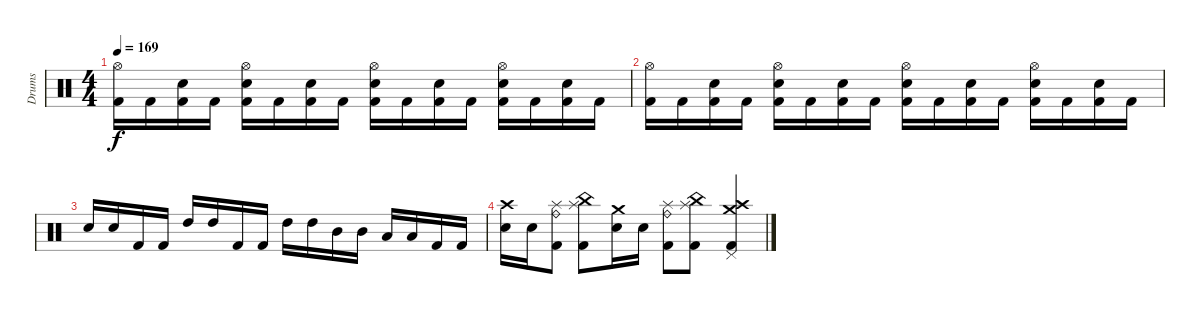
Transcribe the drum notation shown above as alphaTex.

\track ("Drums" "Drums") {instrument percussion}
\staff {score}
\articulation defaults
\ts (4 4)
\tempo 169
\clef neutral
\ks c
("Hi-Hat (open)" "Kick (hit) 2").16{dy f} "Kick (hit) 2".16 ("Snare (hit) 2" "Kick (hit) 2").16 "Kick (hit) 2".16 ("Hi-Hat (open)" "Snare (hit) 2" "Kick (hit) 2").16 "Kick (hit) 2".16 ("Snare (hit) 2" "Kick (hit) 2").16 "Kick (hit) 2".16 ("Hi-Hat (open)" "Snare (hit) 2" "Kick (hit) 2").16 "Kick (hit) 2".16 ("Snare (hit) 2" "Kick (hit) 2").16 "Kick (hit) 2".16 ("Hi-Hat (open)" "Snare (hit) 2" "Kick (hit) 2").16 "Kick (hit) 2".16 ("Snare (hit) 2" "Kick (hit) 2").16 "Kick (hit) 2".16 |
("Hi-Hat (open)" "Kick (hit) 2").16 "Kick (hit) 2".16 ("Snare (hit) 2" "Kick (hit) 2").16 "Kick (hit) 2".16 ("Hi-Hat (open)" "Snare (hit) 2" "Kick (hit) 2").16 "Kick (hit) 2".16 ("Snare (hit) 2" "Kick (hit) 2").16 "Kick (hit) 2".16 ("Hi-Hat (open)" "Snare (hit) 2" "Kick (hit) 2").16 "Kick (hit) 2".16 ("Snare (hit) 2" "Kick (hit) 2").16 "Kick (hit) 2".16 ("Hi-Hat (open)" "Snare (hit) 2" "Kick (hit) 2").16 "Kick (hit) 2".16 ("Snare (hit) 2" "Kick (hit) 2").16 "Kick (hit) 2".16 |
"Snare (hit) 2".16 "Snare (hit) 2".16 "Kick (hit) 2".16 "Kick (hit) 2".16 "High Tom (hit)".16 "High Tom (hit)".16 "Kick (hit) 2".16 "Kick (hit) 2".16 "High Tom (hit)".16 "High Tom (hit)".16 "Mid Tom (hit)".16 "Mid Tom (hit)".16 "Low Tom (hit)".16 "Low Tom (hit)".16 "Kick (hit) 2".16 "Kick (hit) 2".16 |
("Crash high (hit)" "Snare (hit) 2").16 "Snare (hit) 2".16 ("Splash (hit)" "Ride (bell)" "Kick (hit) 2").8 ("China (hit)" "Splash (hit)" "Kick (hit) 2").8 ("Crash medium (hit)" "Snare (hit) 2").16 "Snare (hit) 2".16 ("Splash (hit)" "Ride (bell)" "Kick (hit) 2").8 ("China (hit)" "Splash (hit)" "Kick (hit) 2").8 ("Crash high (hit)" "Crash medium (hit)" "Pedal Hi-Hat (hit)" "Kick (hit) 2").4
